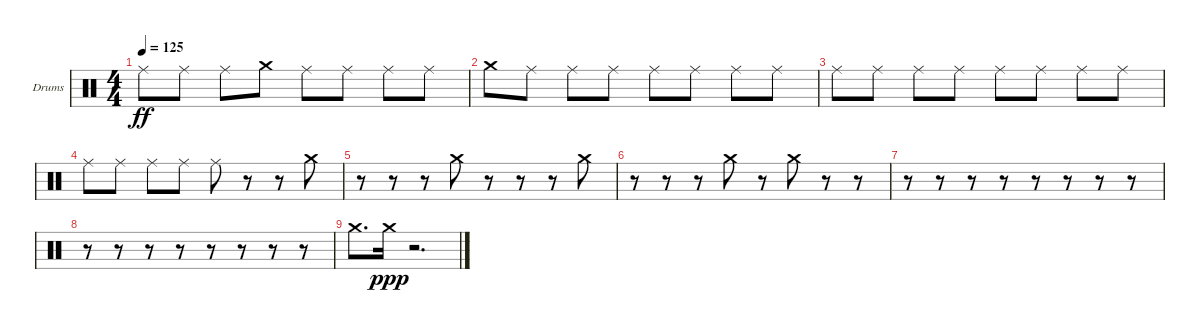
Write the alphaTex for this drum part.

\bracketExtendMode groupsimilarinstruments
\firstSystemTrackNameOrientation horizontal
\otherSystemsTrackNameOrientation horizontal
\track ("Nick Menza" "Drums") {instrument percussion}
\staff {score}
\articulation defaults
\ts (4 4)
\tempo 125
\clef neutral
\scale
0.333333
\ks c "Ride (middle)".8{dy ff} "Ride (middle)".8 "Ride (middle)".8 "Crash medium (hit)".8 "Ride (middle)".8 "Ride (middle)".8 "Ride (middle)".8 "Ride (middle)".8
|
\scale
0.333333 "Crash medium (hit)".8 "Ride (middle)".8 "Ride (middle)".8 "Ride (middle)".8 "Ride (middle)".8 "Ride (middle)".8 "Ride (middle)".8 "Ride (middle)".8 |
\scale
0.333333 "Ride (middle)".8 "Ride (middle)".8 "Ride (middle)".8 "Ride (middle)".8 "Ride (middle)".8 "Ride (middle)".8 "Ride (middle)".8 "Ride (middle)".8 |
\scale
0.333333 "Ride (middle)".8 "Ride (middle)".8 "Ride (middle)".8 "Ride (middle)".8 "Ride (middle)".8 r.8 r.8 "Crash medium (hit)".8 |
\scale
0.333333 r.8 r.8 r.8 "Crash medium (hit)".8 r.8 r.8 r.8 "Crash medium (hit)".8 |
\scale
0.333333 r.8 r.8 r.8 "Crash medium (hit)".8 r.8 "Crash medium (hit)".8 r.8 r.8 |
r.8 r.8 r.8 r.8 r.8 r.8 r.8 r.8 |
r.8 r.8 r.8 r.8 r.8 r.8 r.8 r.8 |
"Crash medium (hit)".8{d} "Crash medium (hit)".16{dy ppp} r.2{d}
